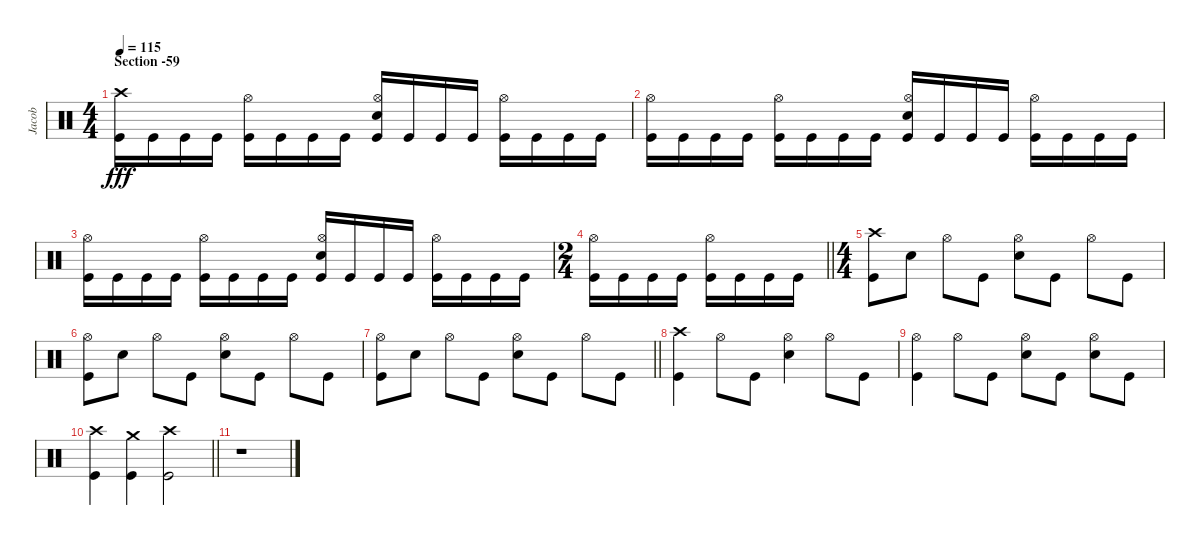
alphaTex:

\track ("Jacob" "Jacob") {instrument percussion}
\staff {score}
\articulation defaults
\ts (4 4)
\section ("" "Section -59")
\tempo 115
\clef neutral
\ks c
("Kick (hit)" "Crash high (hit)").16{dy fff} "Kick (hit)".16 "Kick (hit)".16 "Kick (hit)".16 ("Kick (hit)" "Hi-Hat (open)").16 "Kick (hit)".16 "Kick (hit)".16 "Kick (hit)".16 ("Kick (hit)" "Electric Snare (hit)" "Hi-Hat (open)").16 "Kick (hit)".16 "Kick (hit)".16 "Kick (hit)".16 ("Kick (hit)" "Hi-Hat (open)").16 "Kick (hit)".16 "Kick (hit)".16 "Kick (hit)".16 |
("Kick (hit)" "Hi-Hat (open)").16 "Kick (hit)".16 "Kick (hit)".16 "Kick (hit)".16 ("Kick (hit)" "Hi-Hat (open)").16 "Kick (hit)".16 "Kick (hit)".16 "Kick (hit)".16 ("Kick (hit)" "Electric Snare (hit)" "Hi-Hat (open)").16 "Kick (hit)".16 "Kick (hit)".16 "Kick (hit)".16 ("Kick (hit)" "Hi-Hat (open)").16 "Kick (hit)".16 "Kick (hit)".16 "Kick (hit)".16 |
("Kick (hit)" "Hi-Hat (open)").16 "Kick (hit)".16 "Kick (hit)".16 "Kick (hit)".16 ("Kick (hit)" "Hi-Hat (open)").16 "Kick (hit)".16 "Kick (hit)".16 "Kick (hit)".16 ("Kick (hit)" "Electric Snare (hit)" "Hi-Hat (open)").16 "Kick (hit)".16 "Kick (hit)".16 "Kick (hit)".16 ("Kick (hit)" "Hi-Hat (open)").16 "Kick (hit)".16 "Kick (hit)".16 "Kick (hit)".16 |
\ts (2 4)
\barLineRight lightlight
("Kick (hit)" "Hi-Hat (open)").16 "Kick (hit)".16 "Kick (hit)".16 "Kick (hit)".16 ("Kick (hit)" "Hi-Hat (open)").16 "Kick (hit)".16 "Kick (hit)".16 "Kick (hit)".16 |
\ts (4 4)
("Kick (hit)" "Crash high (hit)").8 "Electric Snare (hit)".8 "Hi-Hat (open)".8 "Kick (hit)".8 ("Electric Snare (hit)" "Hi-Hat (open)").8 "Kick (hit)".8 "Hi-Hat (open)".8 "Kick (hit)".8 |
("Kick (hit)" "Hi-Hat (open)").8 "Electric Snare (hit)".8 "Hi-Hat (open)".8 "Kick (hit)".8 ("Electric Snare (hit)" "Hi-Hat (open)").8 "Kick (hit)".8 "Hi-Hat (open)".8 "Kick (hit)".8 |
\barLineRight lightlight
("Kick (hit)" "Hi-Hat (open)").8 "Electric Snare (hit)".8 "Hi-Hat (open)".8 "Kick (hit)".8 ("Electric Snare (hit)" "Hi-Hat (open)").8 "Kick (hit)".8 "Hi-Hat (open)".8 "Kick (hit)".8 |
("Kick (hit)" "Crash high (hit)").4 "Hi-Hat (open)".8 "Kick (hit)".8 ("Electric Snare (hit)" "Hi-Hat (open)").4 "Hi-Hat (open)".8 "Kick (hit)".8 |
("Kick (hit)" "Hi-Hat (open)").4 "Hi-Hat (open)".8 "Kick (hit)".8 ("Electric Snare (hit)" "Hi-Hat (open)").8 "Kick (hit)".8 ("Electric Snare (hit)" "Hi-Hat (open)").8 "Kick (hit)".8 |
\barLineRight lightlight
("Kick (hit)" "Crash high (hit)").4 ("Kick (hit)" "Crash medium (hit)").4 ("Kick (hit)" "Crash high (hit)").2 |
r.1
